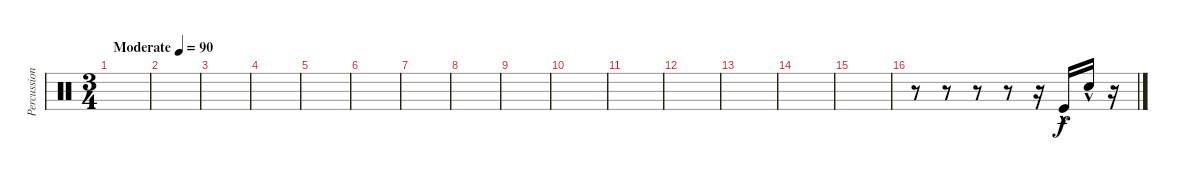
\track ("Percussion" "Percussion") {instrument percussion}
\staff {score}
\articulation defaults
\ts (3 4)
\tempo (90 "Moderate")
\clef neutral
\ks c
|
|
|
|
|
|
|
|
|
|
|
|
|
|
|
r.8 r.8 r.8 r.8 r.16 "Kick (hit)"{hac}.16 "Electric Snare (hit)"{hac}.16 r.16
